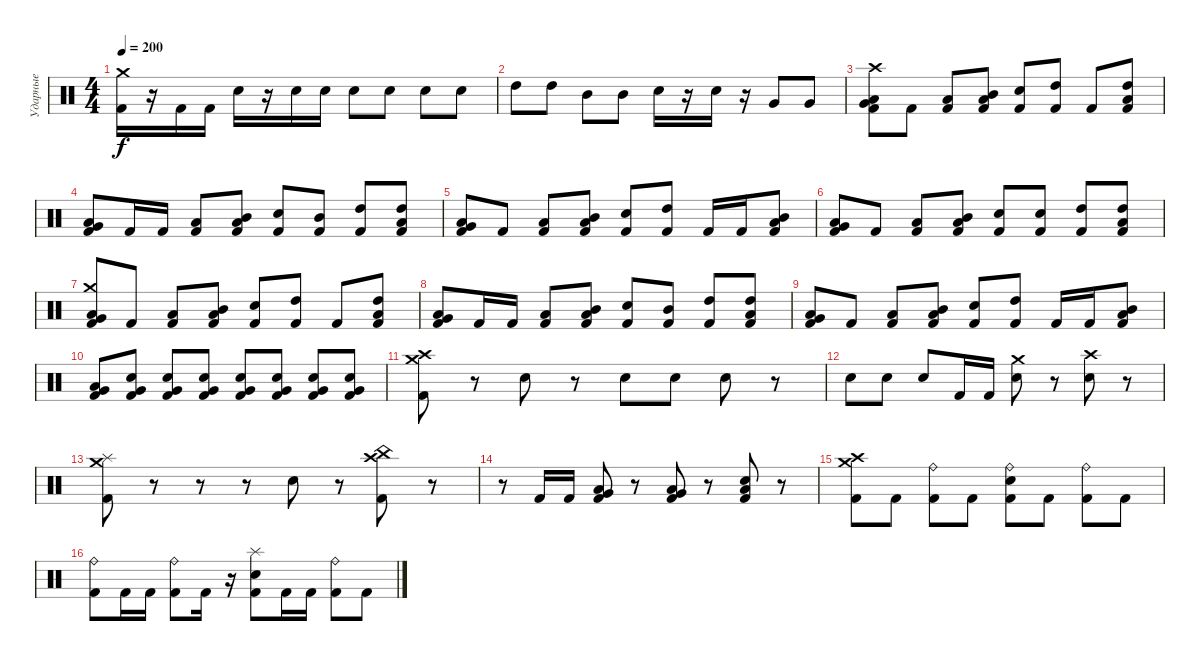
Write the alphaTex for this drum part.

\track ("Ударные" "Ударные") {instrument percussion}
\staff {score}
\articulation defaults
\ts (4 4)
\tempo 200
\clef neutral
\ks c
("Kick (hit) 2" "Crash medium (hit)").16{dy f} r.16 "Kick (hit) 2".16 "Kick (hit) 2".16 "Electric Snare (hit)".16 r.16 "Electric Snare (hit)".16 "Electric Snare (hit)".16 "Electric Snare (hit)".8 "Electric Snare (hit)".8 "Electric Snare (hit)".8 "Electric Snare (hit)".8 |
"High Tom (hit)".8 "High Tom (hit)".8 "Mid Tom (hit)".8 "Mid Tom (hit)".8 "Electric Snare (hit)".16 r.16 "Electric Snare (hit)".16 r.16 "Very Low Tom (hit)".8 "Very Low Tom (hit)".8 |
("Kick (hit) 2" "Low Floor Tom (hit)" "Very Low Tom (hit)" "Crash high (hit)").8 "Kick (hit) 2".8 ("Kick (hit) 2" "Low Tom (hit)").8 ("Kick (hit) 2" "Mid Tom (hit)" "Low Tom (hit)").8 ("Kick (hit) 2" "Electric Snare (hit)").8 ("Kick (hit) 2" "High Tom (hit)").8 "Kick (hit) 2".8 ("Kick (hit) 2" "Low Tom (hit)" "High Tom (hit)").8 |
("Kick (hit) 2" "Low Floor Tom (hit)" "Very Low Tom (hit)").8 "Kick (hit) 2".16 "Kick (hit) 2".16 ("Kick (hit) 2" "Low Tom (hit)").8 ("Kick (hit) 2" "Mid Tom (hit)" "Low Tom (hit)").8 ("Kick (hit) 2" "Electric Snare (hit)").8 ("Kick (hit) 2" "Mid Tom (hit)").8 ("Kick (hit) 2" "High Tom (hit)").8 ("Kick (hit) 2" "Low Tom (hit)" "High Tom (hit)").8 |
("Kick (hit) 2" "Low Floor Tom (hit)" "Very Low Tom (hit)").8 "Kick (hit) 2".8 ("Kick (hit) 2" "Low Tom (hit)").8 ("Kick (hit) 2" "Mid Tom (hit)" "Low Tom (hit)").8 ("Kick (hit) 2" "Electric Snare (hit)").8 ("Kick (hit) 2" "High Tom (hit)").8 "Kick (hit) 2".16 "Kick (hit) 2".16 ("Kick (hit) 2" "Low Tom (hit)" "Mid Tom (hit)").8 |
("Kick (hit) 2" "Low Floor Tom (hit)" "Very Low Tom (hit)").8 "Kick (hit) 2".8 ("Kick (hit) 2" "Low Tom (hit)").8 ("Kick (hit) 2" "Mid Tom (hit)" "Low Tom (hit)").8 ("Kick (hit) 2" "Electric Snare (hit)").8 ("Kick (hit) 2" "Electric Snare (hit)").8 ("Kick (hit) 2" "High Tom (hit)").8 ("Kick (hit) 2" "Low Tom (hit)" "High Tom (hit)").8 |
("Kick (hit) 2" "Low Floor Tom (hit)" "Very Low Tom (hit)" "Crash medium (hit)").8 "Kick (hit) 2".8 ("Kick (hit) 2" "Low Tom (hit)").8 ("Kick (hit) 2" "Mid Tom (hit)" "Low Tom (hit)").8 ("Kick (hit) 2" "Electric Snare (hit)").8 ("Kick (hit) 2" "High Tom (hit)").8 "Kick (hit) 2".8 ("Kick (hit) 2" "Low Tom (hit)" "High Tom (hit)").8 |
("Kick (hit) 2" "Low Floor Tom (hit)" "Very Low Tom (hit)").8 "Kick (hit) 2".16 "Kick (hit) 2".16 ("Kick (hit) 2" "Low Tom (hit)").8 ("Kick (hit) 2" "Mid Tom (hit)" "Low Tom (hit)").8 ("Kick (hit) 2" "Electric Snare (hit)").8 ("Kick (hit) 2" "Mid Tom (hit)").8 ("Kick (hit) 2" "High Tom (hit)").8 ("Kick (hit) 2" "Low Tom (hit)" "High Tom (hit)").8 |
("Kick (hit) 2" "Low Floor Tom (hit)" "Very Low Tom (hit)").8 "Kick (hit) 2".8 ("Kick (hit) 2" "Low Tom (hit)").8 ("Kick (hit) 2" "Mid Tom (hit)" "Low Tom (hit)").8 ("Kick (hit) 2" "Electric Snare (hit)").8 ("Kick (hit) 2" "High Tom (hit)").8 "Kick (hit) 2".16 "Kick (hit) 2".16 ("Kick (hit) 2" "Low Tom (hit)" "Mid Tom (hit)").8 |
("Kick (hit) 2" "Low Floor Tom (hit)" "Very Low Tom (hit)").8 ("Kick (hit) 2" "Electric Snare (hit)" "Very Low Tom (hit)").8 ("Kick (hit) 2" "Electric Snare (hit)" "Very Low Tom (hit)").8 ("Kick (hit) 2" "Electric Snare (hit)" "Very Low Tom (hit)").8 ("Kick (hit) 2" "Electric Snare (hit)" "Very Low Tom (hit)").8 ("Kick (hit) 2" "Electric Snare (hit)" "Very Low Tom (hit)").8 ("Kick (hit) 2" "Electric Snare (hit)" "Very Low Tom (hit)").8 ("Kick (hit) 2" "Electric Snare (hit)" "Very Low Tom (hit)").8 |
("Kick (hit) 2" "Crash high (hit)" "Crash medium (hit)").8 r.8 "Electric Snare (hit)".8 r.8 "Electric Snare (hit)".8 "Electric Snare (hit)".8 "Electric Snare (hit)".8 r.8 |
"Electric Snare (hit)".8 "Electric Snare (hit)".8 "Electric Snare (hit)".8 "Kick (hit) 2".16 "Kick (hit) 2".16 ("Electric Snare (hit)" "Crash medium (hit)").8 r.8 ("Electric Snare (hit)" "Crash high (hit)").8 r.8 |
("Kick (hit) 2" "Crash medium (hit)" "Splash (hit)").8 r.8 r.8 r.8 "Electric Snare (hit)".8 r.8 ("Kick (hit) 2" "Crash high (hit)" "China (hit)").8 r.8 |
r.8 "Kick (hit) 2".16 "Kick (hit) 2".16 ("Kick (hit) 2" "Low Floor Tom (hit)" "Very Low Tom (hit)").8 r.8 ("Kick (hit) 2" "Low Floor Tom (hit)" "Very Low Tom (hit)").8 r.8 ("Kick (hit) 2" "Low Floor Tom (hit)" "Electric Snare (hit)").8 r.8 |
("Kick (hit) 2" "Crash high (hit)" "Crash medium (hit)").8 "Kick (hit) 2".8 ("Kick (hit) 2" "Ride (bell)").8 "Kick (hit) 2".8 ("Kick (hit) 2" "Electric Snare (hit)" "Ride (bell)").8 "Kick (hit) 2".8 ("Kick (hit) 2" "Ride (bell)").8 "Kick (hit) 2".8 |
("Kick (hit) 2" "Ride (bell)").8 "Kick (hit) 2".16 "Kick (hit) 2".16 ("Kick (hit) 2" "Ride (bell)").8 "Kick (hit) 2".16 r.16 ("Kick (hit) 2" "Electric Snare (hit)" "Splash (hit)").8 "Kick (hit) 2".16 "Kick (hit) 2".16 ("Kick (hit) 2" "Ride (bell)").8 "Kick (hit) 2".8
